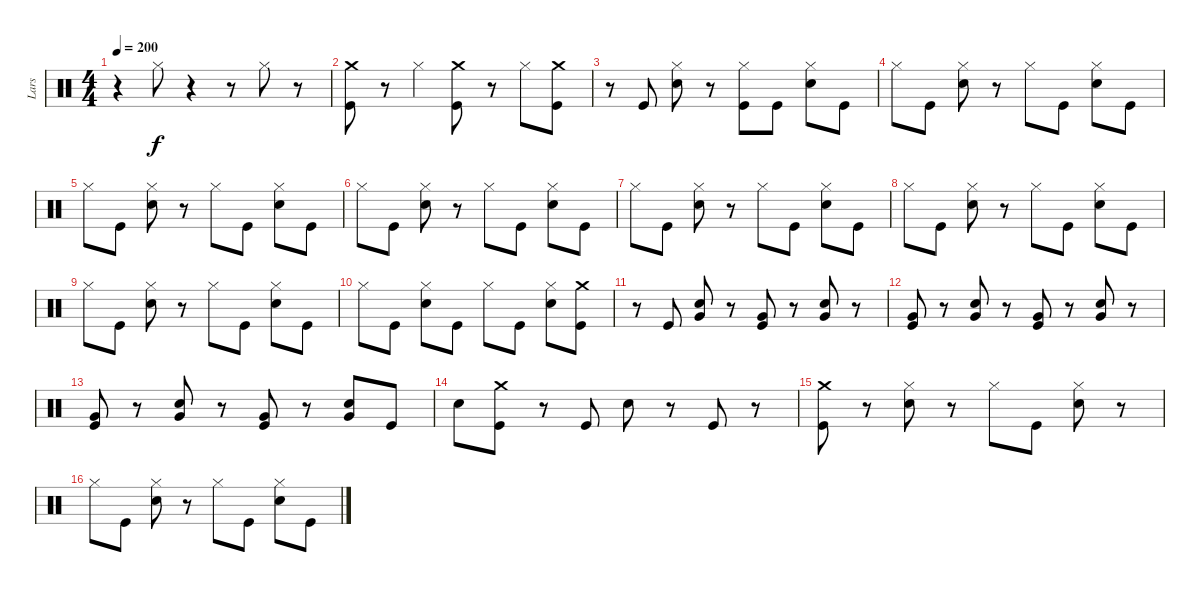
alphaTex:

\track ("Lars" "Lars") {instrument percussion}
\staff {score}
\articulation defaults
\ts (4 4)
\tempo 200
\clef neutral
\ks c
r.4{dy f} "Hi-Hat (closed)".8 r.4 r.8 "Hi-Hat (closed)".8 r.8 |
("Crash medium (hit)" "Kick (hit)").8 r.8 "Hi-Hat (closed)".4 ("Crash medium (hit)" "Kick (hit)").8 r.8 "Hi-Hat (closed)".8 ("Crash medium (hit)" "Kick (hit)").8 |
r.8 "Kick (hit)".8 ("Snare (hit) 2" "Hi-Hat (closed)").8 r.8 ("Kick (hit)" "Hi-Hat (closed)").8 "Kick (hit)".8 ("Hi-Hat (closed)" "Snare (hit) 2").8 "Kick (hit)".8 |
"Hi-Hat (closed)".8 "Kick (hit)".8 ("Hi-Hat (closed)" "Snare (hit) 2").8 r.8 "Hi-Hat (closed)".8 "Kick (hit)".8 ("Hi-Hat (closed)" "Snare (hit) 2").8 "Kick (hit)".8 |
"Hi-Hat (closed)".8 "Kick (hit)".8 ("Hi-Hat (closed)" "Snare (hit) 2").8 r.8 "Hi-Hat (closed)".8 "Kick (hit)".8 ("Hi-Hat (closed)" "Snare (hit) 2").8 "Kick (hit)".8 |
"Hi-Hat (closed)".8 "Kick (hit)".8 ("Hi-Hat (closed)" "Snare (hit) 2").8 r.8 "Hi-Hat (closed)".8 "Kick (hit)".8 ("Hi-Hat (closed)" "Snare (hit) 2").8 "Kick (hit)".8 |
"Hi-Hat (closed)".8 "Kick (hit)".8 ("Hi-Hat (closed)" "Snare (hit) 2").8 r.8 "Hi-Hat (closed)".8 "Kick (hit)".8 ("Hi-Hat (closed)" "Snare (hit) 2").8 "Kick (hit)".8 |
"Hi-Hat (closed)".8 "Kick (hit)".8 ("Hi-Hat (closed)" "Snare (hit) 2").8 r.8 "Hi-Hat (closed)".8 "Kick (hit)".8 ("Snare (hit) 2" "Hi-Hat (closed)").8 "Kick (hit)".8 |
"Hi-Hat (closed)".8 "Kick (hit)".8 ("Hi-Hat (closed)" "Snare (hit) 2").8 r.8 "Hi-Hat (closed)".8 "Kick (hit)".8 ("Hi-Hat (closed)" "Snare (hit) 2").8 "Kick (hit)".8 |
"Hi-Hat (closed)".8 "Kick (hit)".8 ("Hi-Hat (closed)" "Snare (hit) 2").8 "Kick (hit)".8 "Hi-Hat (closed)".8 "Kick (hit)".8 ("Hi-Hat (closed)" "Snare (hit) 2").8 ("Crash medium (hit)" "Kick (hit)").8 |
r.8 "Kick (hit)".8 ("Very Low Tom (hit)" "Snare (hit) 2").8 r.8 ("Kick (hit)" "Very Low Tom (hit)").8 r.8 ("Very Low Tom (hit)" "Snare (hit) 2").8 r.8 |
("Very Low Tom (hit)" "Kick (hit)").8 r.8 ("Very Low Tom (hit)" "Snare (hit) 2").8 r.8 ("Very Low Tom (hit)" "Kick (hit)").8 r.8 ("Snare (hit) 2" "Very Low Tom (hit)").8 r.8 |
("Very Low Tom (hit)" "Kick (hit)").8 r.8 ("Snare (hit) 2" "Very Low Tom (hit)").8 r.8 ("Very Low Tom (hit)" "Kick (hit)").8 r.8 ("Very Low Tom (hit)" "Snare (hit) 2").8 "Kick (hit)".8 |
"Snare (hit) 2".8 ("Kick (hit)" "Crash medium (hit)").8 r.8 "Kick (hit)".8 "Snare (hit) 2".8 r.8 "Kick (hit)".8 r.8 |
("Crash medium (hit)" "Kick (hit)").8 r.8 ("Snare (hit) 2" "Hi-Hat (closed)").8 r.8 "Hi-Hat (closed)".8 "Kick (hit)".8 ("Hi-Hat (closed)" "Snare (hit) 2").8 r.8 |
"Hi-Hat (closed)".8 "Kick (hit)".8 ("Hi-Hat (closed)" "Snare (hit) 2").8 r.8 "Hi-Hat (closed)".8 "Kick (hit)".8 ("Hi-Hat (closed)" "Snare (hit) 2").8 "Kick (hit)".8
